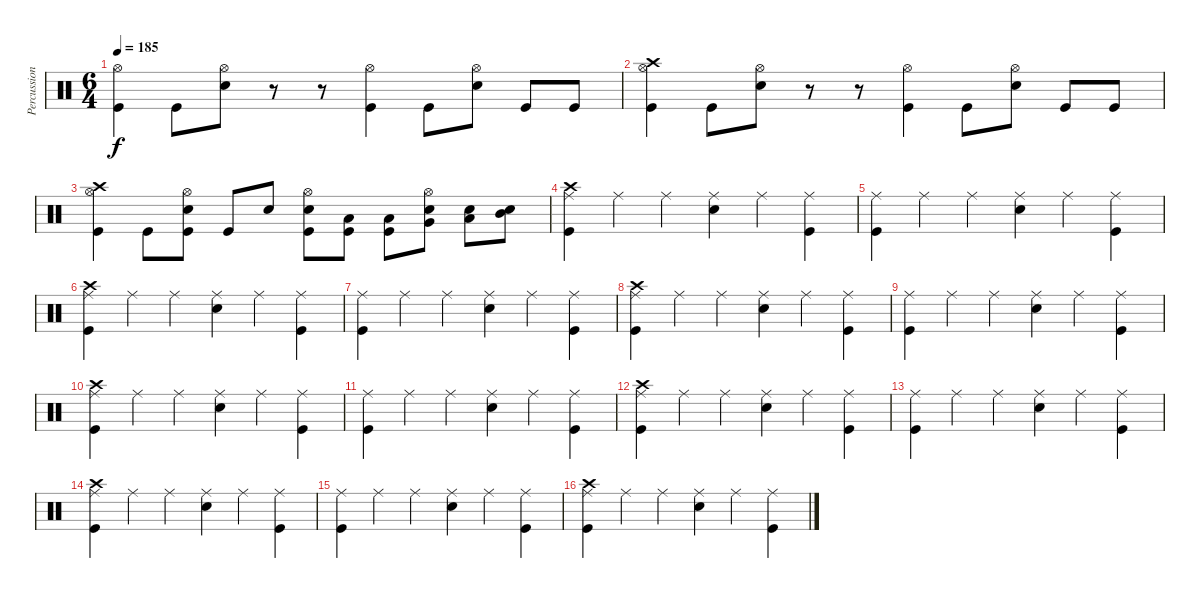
\track ("Percussion" "Percussion") {instrument percussion}
\staff {score}
\articulation defaults
\ts (6 4)
\tempo 185
\clef neutral
\ks c
("Hi-Hat (open)" "Kick (hit)").4{dy f} "Kick (hit)".8 ("Hi-Hat (open)" "Electric Snare (hit)").8 r.8 r.8 ("Hi-Hat (open)" "Kick (hit)").4 "Kick (hit)".8 ("Hi-Hat (open)" "Electric Snare (hit)").8 "Kick (hit)".8 "Kick (hit)".8 |
("Crash high (hit)" "Hi-Hat (open)" "Kick (hit)").4 "Kick (hit)".8 ("Hi-Hat (open)" "Electric Snare (hit)").8 r.8 r.8 ("Hi-Hat (open)" "Kick (hit)").4 "Kick (hit)".8 ("Hi-Hat (open)" "Electric Snare (hit)").8 "Kick (hit)".8 "Kick (hit)".8 |
("Crash high (hit)" "Hi-Hat (open)" "Kick (hit)").4 "Kick (hit)".8 ("Hi-Hat (open)" "Electric Snare (hit)" "Kick (hit)").8 "Kick (hit)".8 "Electric Snare (hit)".8 ("Hi-Hat (open)" "Electric Snare (hit)" "Kick (hit)").8 ("Low Floor Tom (hit)" "Kick (hit)").8 ("Low Floor Tom (hit)" "Kick (hit)").8 ("Hi-Hat (open)" "Very Low Tom (hit)" "Electric Snare (hit)").8 ("Low Tom (hit)" "Electric Snare (hit)").8 ("Mid Tom (hit)" "Electric Snare (hit)").8 |
("Crash high (hit)" "Ride (middle)" "Kick (hit)").4 "Ride (middle)".4 "Ride (middle)".4 ("Ride (middle)" "Electric Snare (hit)").4 "Ride (middle)".4 ("Ride (middle)" "Kick (hit)").4 |
("Ride (middle)" "Kick (hit)").4 "Ride (middle)".4 "Ride (middle)".4 ("Ride (middle)" "Electric Snare (hit)").4 "Ride (middle)".4 ("Ride (middle)" "Kick (hit)").4 |
("Crash high (hit)" "Ride (middle)" "Kick (hit)").4 "Ride (middle)".4 "Ride (middle)".4 ("Ride (middle)" "Electric Snare (hit)").4 "Ride (middle)".4 ("Ride (middle)" "Kick (hit)").4 |
("Ride (middle)" "Kick (hit)").4 "Ride (middle)".4 "Ride (middle)".4 ("Ride (middle)" "Electric Snare (hit)").4 "Ride (middle)".4 ("Ride (middle)" "Kick (hit)").4 |
("Crash high (hit)" "Ride (middle)" "Kick (hit)").4 "Ride (middle)".4 "Ride (middle)".4 ("Ride (middle)" "Electric Snare (hit)").4 "Ride (middle)".4 ("Ride (middle)" "Kick (hit)").4 |
("Ride (middle)" "Kick (hit)").4 "Ride (middle)".4 "Ride (middle)".4 ("Ride (middle)" "Electric Snare (hit)").4 "Ride (middle)".4 ("Ride (middle)" "Kick (hit)").4 |
("Crash high (hit)" "Ride (middle)" "Kick (hit)").4 "Ride (middle)".4 "Ride (middle)".4 ("Ride (middle)" "Electric Snare (hit)").4 "Ride (middle)".4 ("Ride (middle)" "Kick (hit)").4 |
("Ride (middle)" "Kick (hit)").4 "Ride (middle)".4 "Ride (middle)".4 ("Ride (middle)" "Electric Snare (hit)").4 "Ride (middle)".4 ("Ride (middle)" "Kick (hit)").4 |
("Crash high (hit)" "Ride (middle)" "Kick (hit)").4{volume 10} "Ride (middle)".4 "Ride (middle)".4 ("Ride (middle)" "Electric Snare (hit)").4 "Ride (middle)".4 ("Ride (middle)" "Kick (hit)").4 |
("Ride (middle)" "Kick (hit)").4 "Ride (middle)".4 "Ride (middle)".4 ("Ride (middle)" "Electric Snare (hit)").4 "Ride (middle)".4 ("Ride (middle)" "Kick (hit)").4 |
("Crash high (hit)" "Ride (middle)" "Kick (hit)").4{volume 6} "Ride (middle)".4 "Ride (middle)".4 ("Ride (middle)" "Electric Snare (hit)").4 "Ride (middle)".4 ("Ride (middle)" "Kick (hit)").4 |
("Ride (middle)" "Kick (hit)").4 "Ride (middle)".4 "Ride (middle)".4 ("Ride (middle)" "Electric Snare (hit)").4 "Ride (middle)".4 ("Ride (middle)" "Kick (hit)").4 |
("Crash high (hit)" "Ride (middle)" "Kick (hit)").4{volume 6} "Ride (middle)".4 "Ride (middle)".4 ("Ride (middle)" "Electric Snare (hit)").4 "Ride (middle)".4 ("Ride (middle)" "Kick (hit)").4
